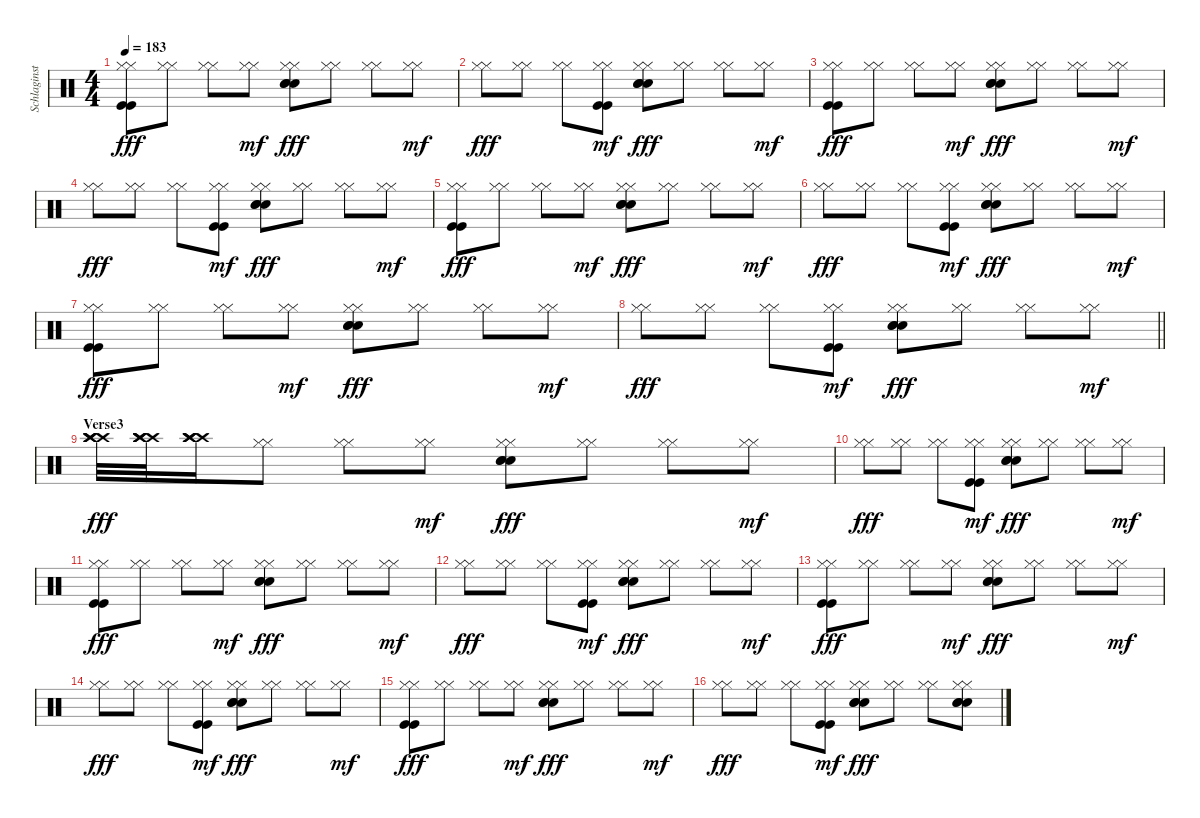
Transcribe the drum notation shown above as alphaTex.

\track ("Schlaginstrumente - Auswahl" "Schlaginst") {instrument percussion}
\staff {score}
\articulation defaults
\ts (4 4)
\tempo 183
\clef neutral
\ks c
("Hi-Hat (closed)" "Hi-Hat (closed)" "Kick (hit)" "Kick (hit)").8{dy fff} ("Hi-Hat (closed)" "Hi-Hat (closed)").8 ("Hi-Hat (closed)" "Hi-Hat (closed)").8 ("Hi-Hat (closed)" "Hi-Hat (closed)").8{dy mf} ("Hi-Hat (closed)" "Hi-Hat (closed)" "Snare (hit) 2" "Snare (hit) 2" "Snare (hit) 2").8{dy fff} ("Hi-Hat (closed)" "Hi-Hat (closed)").8 ("Hi-Hat (closed)" "Hi-Hat (closed)").8 ("Hi-Hat (closed)" "Hi-Hat (closed)").8{dy mf} |
("Hi-Hat (closed)" "Hi-Hat (closed)").8{dy fff} ("Hi-Hat (closed)" "Hi-Hat (closed)").8 ("Hi-Hat (closed)" "Hi-Hat (closed)").8 ("Hi-Hat (closed)" "Hi-Hat (closed)" "Kick (hit)" "Kick (hit)").8{dy mf} ("Hi-Hat (closed)" "Hi-Hat (closed)" "Snare (hit) 2" "Snare (hit) 2" "Snare (hit) 2").8{dy fff} ("Hi-Hat (closed)" "Hi-Hat (closed)").8 ("Hi-Hat (closed)" "Hi-Hat (closed)").8 ("Hi-Hat (closed)" "Hi-Hat (closed)").8{dy mf} |
("Hi-Hat (closed)" "Hi-Hat (closed)" "Kick (hit)" "Kick (hit)").8{dy fff} ("Hi-Hat (closed)" "Hi-Hat (closed)").8 ("Hi-Hat (closed)" "Hi-Hat (closed)").8 ("Hi-Hat (closed)" "Hi-Hat (closed)").8{dy mf} ("Hi-Hat (closed)" "Hi-Hat (closed)" "Snare (hit) 2" "Snare (hit) 2" "Snare (hit) 2").8{dy fff} ("Hi-Hat (closed)" "Hi-Hat (closed)").8 ("Hi-Hat (closed)" "Hi-Hat (closed)").8 ("Hi-Hat (closed)" "Hi-Hat (closed)").8{dy mf} |
("Hi-Hat (closed)" "Hi-Hat (closed)").8{dy fff} ("Hi-Hat (closed)" "Hi-Hat (closed)").8 ("Hi-Hat (closed)" "Hi-Hat (closed)").8 ("Hi-Hat (closed)" "Hi-Hat (closed)" "Kick (hit)" "Kick (hit)").8{dy mf} ("Hi-Hat (closed)" "Hi-Hat (closed)" "Snare (hit) 2" "Snare (hit) 2" "Snare (hit) 2").8{dy fff} ("Hi-Hat (closed)" "Hi-Hat (closed)").8 ("Hi-Hat (closed)" "Hi-Hat (closed)").8 ("Hi-Hat (closed)" "Hi-Hat (closed)").8{dy mf} |
("Hi-Hat (closed)" "Hi-Hat (closed)" "Kick (hit)" "Kick (hit)").8{dy fff} ("Hi-Hat (closed)" "Hi-Hat (closed)").8 ("Hi-Hat (closed)" "Hi-Hat (closed)").8 ("Hi-Hat (closed)" "Hi-Hat (closed)").8{dy mf} ("Hi-Hat (closed)" "Hi-Hat (closed)" "Snare (hit) 2" "Snare (hit) 2" "Snare (hit) 2").8{dy fff} ("Hi-Hat (closed)" "Hi-Hat (closed)").8 ("Hi-Hat (closed)" "Hi-Hat (closed)").8 ("Hi-Hat (closed)" "Hi-Hat (closed)").8{dy mf} |
("Hi-Hat (closed)" "Hi-Hat (closed)").8{dy fff} ("Hi-Hat (closed)" "Hi-Hat (closed)").8 ("Hi-Hat (closed)" "Hi-Hat (closed)").8 ("Hi-Hat (closed)" "Hi-Hat (closed)" "Kick (hit)" "Kick (hit)").8{dy mf} ("Hi-Hat (closed)" "Hi-Hat (closed)" "Snare (hit) 2" "Snare (hit) 2" "Snare (hit) 2").8{dy fff} ("Hi-Hat (closed)" "Hi-Hat (closed)").8 ("Hi-Hat (closed)" "Hi-Hat (closed)").8 ("Hi-Hat (closed)" "Hi-Hat (closed)").8{dy mf} |
("Hi-Hat (closed)" "Hi-Hat (closed)" "Kick (hit)" "Kick (hit)").8{dy fff} ("Hi-Hat (closed)" "Hi-Hat (closed)").8 ("Hi-Hat (closed)" "Hi-Hat (closed)").8 ("Hi-Hat (closed)" "Hi-Hat (closed)").8{dy mf} ("Hi-Hat (closed)" "Hi-Hat (closed)" "Snare (hit) 2" "Snare (hit) 2" "Snare (hit) 2").8{dy fff} ("Hi-Hat (closed)" "Hi-Hat (closed)").8 ("Hi-Hat (closed)" "Hi-Hat (closed)").8 ("Hi-Hat (closed)" "Hi-Hat (closed)").8{dy mf} |
\barLineRight lightlight
("Hi-Hat (closed)" "Hi-Hat (closed)").8{dy fff} ("Hi-Hat (closed)" "Hi-Hat (closed)").8 ("Hi-Hat (closed)" "Hi-Hat (closed)").8 ("Hi-Hat (closed)" "Hi-Hat (closed)" "Kick (hit)" "Kick (hit)").8{dy mf} ("Hi-Hat (closed)" "Hi-Hat (closed)" "Snare (hit) 2" "Snare (hit) 2" "Snare (hit) 2").8{dy fff} ("Hi-Hat (closed)" "Hi-Hat (closed)").8 ("Hi-Hat (closed)" "Hi-Hat (closed)").8 ("Hi-Hat (closed)" "Hi-Hat (closed)").8{dy mf} |
\section ("" "Verse3")
("Crash high (hit)" "Crash high (hit)" "Crash high (hit)" "Crash high (hit)").32{dy fff} ("Crash high (hit)" "Crash high (hit)" "Crash high (hit)" "Crash high (hit)").32 ("Crash high (hit)" "Crash high (hit)" "Crash high (hit)" "Crash high (hit)").16 ("Hi-Hat (closed)" "Hi-Hat (closed)").8 ("Hi-Hat (closed)" "Hi-Hat (closed)").8 ("Hi-Hat (closed)" "Hi-Hat (closed)").8{dy mf} ("Hi-Hat (closed)" "Hi-Hat (closed)" "Snare (hit) 2" "Snare (hit) 2" "Snare (hit) 2").8{dy fff} ("Hi-Hat (closed)" "Hi-Hat (closed)").8 ("Hi-Hat (closed)" "Hi-Hat (closed)").8 ("Hi-Hat (closed)" "Hi-Hat (closed)").8{dy mf} |
("Hi-Hat (closed)" "Hi-Hat (closed)").8{dy fff} ("Hi-Hat (closed)" "Hi-Hat (closed)").8 ("Hi-Hat (closed)" "Hi-Hat (closed)").8 ("Hi-Hat (closed)" "Hi-Hat (closed)" "Kick (hit)" "Kick (hit)").8{dy mf} ("Hi-Hat (closed)" "Hi-Hat (closed)" "Snare (hit) 2" "Snare (hit) 2" "Snare (hit) 2").8{dy fff} ("Hi-Hat (closed)" "Hi-Hat (closed)").8 ("Hi-Hat (closed)" "Hi-Hat (closed)").8 ("Hi-Hat (closed)" "Hi-Hat (closed)").8{dy mf} |
("Hi-Hat (closed)" "Hi-Hat (closed)" "Kick (hit)" "Kick (hit)").8{dy fff} ("Hi-Hat (closed)" "Hi-Hat (closed)").8 ("Hi-Hat (closed)" "Hi-Hat (closed)").8 ("Hi-Hat (closed)" "Hi-Hat (closed)").8{dy mf} ("Hi-Hat (closed)" "Hi-Hat (closed)" "Snare (hit) 2" "Snare (hit) 2" "Snare (hit) 2").8{dy fff} ("Hi-Hat (closed)" "Hi-Hat (closed)").8 ("Hi-Hat (closed)" "Hi-Hat (closed)").8 ("Hi-Hat (closed)" "Hi-Hat (closed)").8{dy mf} |
("Hi-Hat (closed)" "Hi-Hat (closed)").8{dy fff} ("Hi-Hat (closed)" "Hi-Hat (closed)").8 ("Hi-Hat (closed)" "Hi-Hat (closed)").8 ("Hi-Hat (closed)" "Hi-Hat (closed)" "Kick (hit)" "Kick (hit)").8{dy mf} ("Hi-Hat (closed)" "Hi-Hat (closed)" "Snare (hit) 2" "Snare (hit) 2" "Snare (hit) 2").8{dy fff} ("Hi-Hat (closed)" "Hi-Hat (closed)").8 ("Hi-Hat (closed)" "Hi-Hat (closed)").8 ("Hi-Hat (closed)" "Hi-Hat (closed)").8{dy mf} |
("Hi-Hat (closed)" "Hi-Hat (closed)" "Kick (hit)" "Kick (hit)").8{dy fff} ("Hi-Hat (closed)" "Hi-Hat (closed)").8 ("Hi-Hat (closed)" "Hi-Hat (closed)").8 ("Hi-Hat (closed)" "Hi-Hat (closed)").8{dy mf} ("Hi-Hat (closed)" "Hi-Hat (closed)" "Snare (hit) 2" "Snare (hit) 2" "Snare (hit) 2").8{dy fff} ("Hi-Hat (closed)" "Hi-Hat (closed)").8 ("Hi-Hat (closed)" "Hi-Hat (closed)").8 ("Hi-Hat (closed)" "Hi-Hat (closed)").8{dy mf} |
("Hi-Hat (closed)" "Hi-Hat (closed)").8{dy fff} ("Hi-Hat (closed)" "Hi-Hat (closed)").8 ("Hi-Hat (closed)" "Hi-Hat (closed)").8 ("Hi-Hat (closed)" "Hi-Hat (closed)" "Kick (hit)" "Kick (hit)").8{dy mf} ("Hi-Hat (closed)" "Hi-Hat (closed)" "Snare (hit) 2" "Snare (hit) 2" "Snare (hit) 2").8{dy fff} ("Hi-Hat (closed)" "Hi-Hat (closed)").8 ("Hi-Hat (closed)" "Hi-Hat (closed)").8 ("Hi-Hat (closed)" "Hi-Hat (closed)").8{dy mf} |
("Hi-Hat (closed)" "Hi-Hat (closed)" "Kick (hit)" "Kick (hit)").8{dy fff} ("Hi-Hat (closed)" "Hi-Hat (closed)").8 ("Hi-Hat (closed)" "Hi-Hat (closed)").8 ("Hi-Hat (closed)" "Hi-Hat (closed)").8{dy mf} ("Hi-Hat (closed)" "Hi-Hat (closed)" "Snare (hit) 2" "Snare (hit) 2" "Snare (hit) 2").8{dy fff} ("Hi-Hat (closed)" "Hi-Hat (closed)").8 ("Hi-Hat (closed)" "Hi-Hat (closed)").8 ("Hi-Hat (closed)" "Hi-Hat (closed)").8{dy mf} |
("Hi-Hat (closed)" "Hi-Hat (closed)").8{dy fff} ("Hi-Hat (closed)" "Hi-Hat (closed)").8 ("Hi-Hat (closed)" "Hi-Hat (closed)").8 ("Hi-Hat (closed)" "Hi-Hat (closed)" "Kick (hit)" "Kick (hit)").8{dy mf} ("Hi-Hat (closed)" "Hi-Hat (closed)" "Snare (hit) 2" "Snare (hit) 2" "Snare (hit) 2").8{dy fff} ("Hi-Hat (closed)" "Hi-Hat (closed)").8 ("Hi-Hat (closed)" "Hi-Hat (closed)").8 ("Hi-Hat (closed)" "Hi-Hat (closed)" "Snare (hit) 2" "Snare (hit) 2" "Snare (hit) 2").8
